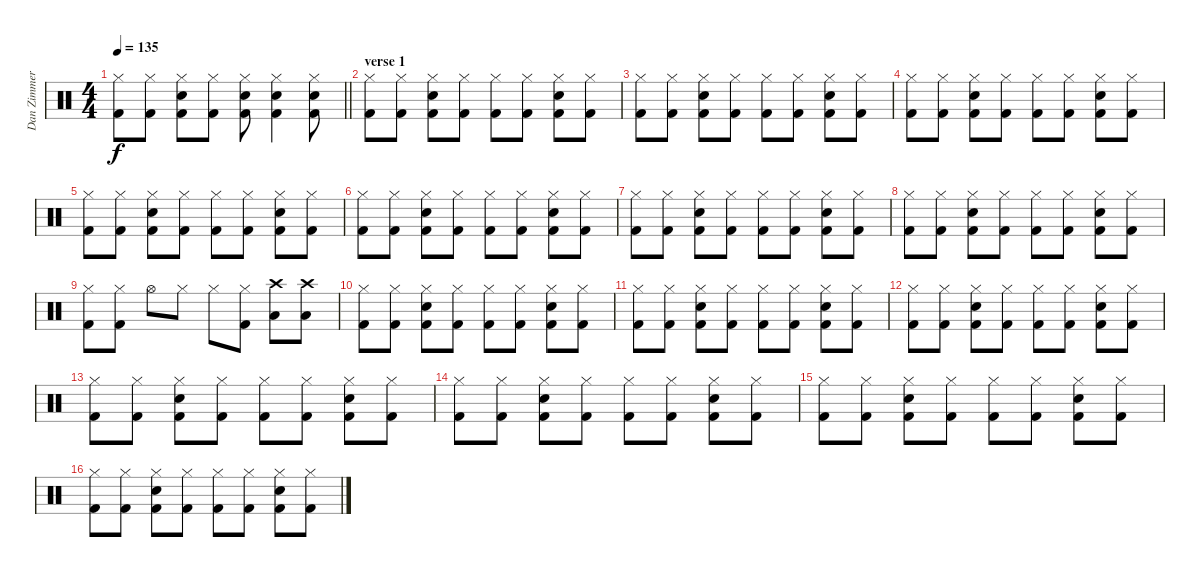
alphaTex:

\track ("Dan Zimmerman" "Dan Zimmer") {instrument percussion}
\staff {score}
\articulation defaults
\ts (4 4)
\tempo 135
\clef neutral
\barLineRight lightlight
\ks c
("Hi-Hat (closed)" "Kick (hit) 2").8{dy f} ("Hi-Hat (closed)" "Kick (hit) 2").8 ("Snare (hit) 2" "Hi-Hat (closed)" "Kick (hit) 2").8 ("Hi-Hat (closed)" "Kick (hit) 2").8 ("Snare (hit) 2" "Hi-Hat (closed)" "Kick (hit) 2").8 ("Snare (hit) 2" "Hi-Hat (closed)" "Kick (hit) 2").4 ("Snare (hit) 2" "Hi-Hat (closed)" "Kick (hit) 2").8 |
\section ("" "verse 1")
("Hi-Hat (closed)" "Kick (hit) 2").8 ("Hi-Hat (closed)" "Kick (hit) 2").8 ("Snare (hit) 2" "Hi-Hat (closed)" "Kick (hit) 2").8 ("Hi-Hat (closed)" "Kick (hit) 2").8 ("Hi-Hat (closed)" "Kick (hit) 2").8 ("Hi-Hat (closed)" "Kick (hit) 2").8 ("Snare (hit) 2" "Hi-Hat (closed)" "Kick (hit) 2").8 ("Hi-Hat (closed)" "Kick (hit) 2").8 |
("Hi-Hat (closed)" "Kick (hit) 2").8 ("Hi-Hat (closed)" "Kick (hit) 2").8 ("Snare (hit) 2" "Hi-Hat (closed)" "Kick (hit) 2").8 ("Hi-Hat (closed)" "Kick (hit) 2").8 ("Hi-Hat (closed)" "Kick (hit) 2").8 ("Hi-Hat (closed)" "Kick (hit) 2").8 ("Snare (hit) 2" "Hi-Hat (closed)" "Kick (hit) 2").8 ("Hi-Hat (closed)" "Kick (hit) 2").8 |
("Hi-Hat (closed)" "Kick (hit) 2").8 ("Hi-Hat (closed)" "Kick (hit) 2").8 ("Snare (hit) 2" "Hi-Hat (closed)" "Kick (hit) 2").8 ("Hi-Hat (closed)" "Kick (hit) 2").8 ("Hi-Hat (closed)" "Kick (hit) 2").8 ("Hi-Hat (closed)" "Kick (hit) 2").8 ("Snare (hit) 2" "Hi-Hat (closed)" "Kick (hit) 2").8 ("Hi-Hat (closed)" "Kick (hit) 2").8 |
("Hi-Hat (closed)" "Kick (hit) 2").8 ("Hi-Hat (closed)" "Kick (hit) 2").8 ("Snare (hit) 2" "Hi-Hat (closed)" "Kick (hit) 2").8 ("Hi-Hat (closed)" "Kick (hit) 2").8 ("Hi-Hat (closed)" "Kick (hit) 2").8 ("Hi-Hat (closed)" "Kick (hit) 2").8 ("Snare (hit) 2" "Hi-Hat (closed)" "Kick (hit) 2").8 ("Hi-Hat (closed)" "Kick (hit) 2").8 |
("Hi-Hat (closed)" "Kick (hit) 2").8 ("Hi-Hat (closed)" "Kick (hit) 2").8 ("Snare (hit) 2" "Hi-Hat (closed)" "Kick (hit) 2").8 ("Hi-Hat (closed)" "Kick (hit) 2").8 ("Hi-Hat (closed)" "Kick (hit) 2").8 ("Hi-Hat (closed)" "Kick (hit) 2").8 ("Snare (hit) 2" "Hi-Hat (closed)" "Kick (hit) 2").8 ("Hi-Hat (closed)" "Kick (hit) 2").8 |
("Hi-Hat (closed)" "Kick (hit) 2").8 ("Hi-Hat (closed)" "Kick (hit) 2").8 ("Snare (hit) 2" "Hi-Hat (closed)" "Kick (hit) 2").8 ("Hi-Hat (closed)" "Kick (hit) 2").8 ("Hi-Hat (closed)" "Kick (hit) 2").8 ("Hi-Hat (closed)" "Kick (hit) 2").8 ("Snare (hit) 2" "Hi-Hat (closed)" "Kick (hit) 2").8 ("Hi-Hat (closed)" "Kick (hit) 2").8 |
("Hi-Hat (closed)" "Kick (hit) 2").8 ("Hi-Hat (closed)" "Kick (hit) 2").8 ("Snare (hit) 2" "Hi-Hat (closed)" "Kick (hit) 2").8 ("Hi-Hat (closed)" "Kick (hit) 2").8 ("Hi-Hat (closed)" "Kick (hit) 2").8 ("Hi-Hat (closed)" "Kick (hit) 2").8 ("Snare (hit) 2" "Hi-Hat (closed)" "Kick (hit) 2").8 ("Hi-Hat (closed)" "Kick (hit) 2").8 |
("Hi-Hat (closed)" "Kick (hit) 2").8 ("Hi-Hat (closed)" "Kick (hit) 2").8 "Hi-Hat (open)".8 "Hi-Hat (closed)".8 "Hi-Hat (closed)".8 ("Hi-Hat (closed)" "Kick (hit) 2").8 ("Crash high (hit)" "Low Floor Tom (hit)").8 ("Crash high (hit)" "Low Floor Tom (hit)").8 |
("Hi-Hat (closed)" "Kick (hit) 2").8 ("Hi-Hat (closed)" "Kick (hit) 2").8 ("Snare (hit) 2" "Hi-Hat (closed)" "Kick (hit) 2").8 ("Hi-Hat (closed)" "Kick (hit) 2").8 ("Hi-Hat (closed)" "Kick (hit) 2").8 ("Hi-Hat (closed)" "Kick (hit) 2").8 ("Snare (hit) 2" "Hi-Hat (closed)" "Kick (hit) 2").8 ("Hi-Hat (closed)" "Kick (hit) 2").8 |
("Hi-Hat (closed)" "Kick (hit) 2").8 ("Hi-Hat (closed)" "Kick (hit) 2").8 ("Snare (hit) 2" "Hi-Hat (closed)" "Kick (hit) 2").8 ("Hi-Hat (closed)" "Kick (hit) 2").8 ("Hi-Hat (closed)" "Kick (hit) 2").8 ("Hi-Hat (closed)" "Kick (hit) 2").8 ("Snare (hit) 2" "Hi-Hat (closed)" "Kick (hit) 2").8 ("Hi-Hat (closed)" "Kick (hit) 2").8 |
("Hi-Hat (closed)" "Kick (hit) 2").8 ("Hi-Hat (closed)" "Kick (hit) 2").8 ("Snare (hit) 2" "Hi-Hat (closed)" "Kick (hit) 2").8 ("Hi-Hat (closed)" "Kick (hit) 2").8 ("Hi-Hat (closed)" "Kick (hit) 2").8 ("Hi-Hat (closed)" "Kick (hit) 2").8 ("Snare (hit) 2" "Hi-Hat (closed)" "Kick (hit) 2").8 ("Hi-Hat (closed)" "Kick (hit) 2").8 |
("Hi-Hat (closed)" "Kick (hit) 2").8 ("Hi-Hat (closed)" "Kick (hit) 2").8 ("Snare (hit) 2" "Hi-Hat (closed)" "Kick (hit) 2").8 ("Hi-Hat (closed)" "Kick (hit) 2").8 ("Hi-Hat (closed)" "Kick (hit) 2").8 ("Hi-Hat (closed)" "Kick (hit) 2").8 ("Snare (hit) 2" "Hi-Hat (closed)" "Kick (hit) 2").8 ("Hi-Hat (closed)" "Kick (hit) 2").8 |
("Hi-Hat (closed)" "Kick (hit) 2").8 ("Hi-Hat (closed)" "Kick (hit) 2").8 ("Snare (hit) 2" "Hi-Hat (closed)" "Kick (hit) 2").8 ("Hi-Hat (closed)" "Kick (hit) 2").8 ("Hi-Hat (closed)" "Kick (hit) 2").8 ("Hi-Hat (closed)" "Kick (hit) 2").8 ("Snare (hit) 2" "Hi-Hat (closed)" "Kick (hit) 2").8 ("Hi-Hat (closed)" "Kick (hit) 2").8 |
("Hi-Hat (closed)" "Kick (hit) 2").8 ("Hi-Hat (closed)" "Kick (hit) 2").8 ("Snare (hit) 2" "Hi-Hat (closed)" "Kick (hit) 2").8 ("Hi-Hat (closed)" "Kick (hit) 2").8 ("Hi-Hat (closed)" "Kick (hit) 2").8 ("Hi-Hat (closed)" "Kick (hit) 2").8 ("Snare (hit) 2" "Hi-Hat (closed)" "Kick (hit) 2").8 ("Hi-Hat (closed)" "Kick (hit) 2").8 |
("Hi-Hat (closed)" "Kick (hit) 2").8 ("Hi-Hat (closed)" "Kick (hit) 2").8 ("Snare (hit) 2" "Hi-Hat (closed)" "Kick (hit) 2").8 ("Hi-Hat (closed)" "Kick (hit) 2").8 ("Hi-Hat (closed)" "Kick (hit) 2").8 ("Hi-Hat (closed)" "Kick (hit) 2").8 ("Snare (hit) 2" "Hi-Hat (closed)" "Kick (hit) 2").8 ("Hi-Hat (closed)" "Kick (hit) 2").8
